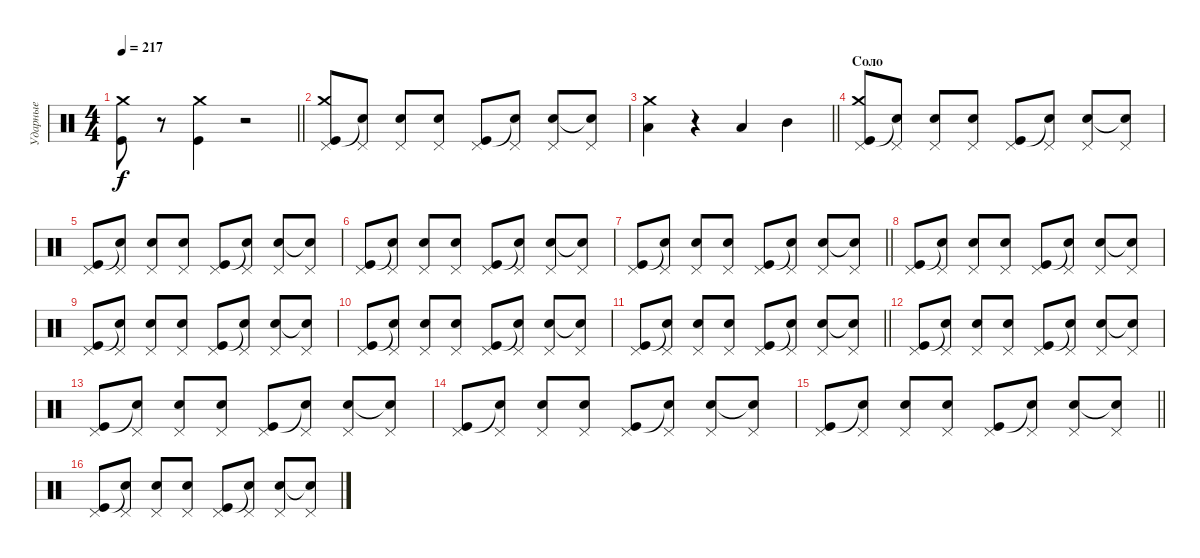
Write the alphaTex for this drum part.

\track ("Ударные" "Ударные") {instrument percussion}
\staff {score}
\articulation defaults
\ts (4 4)
\tempo 217
\clef neutral
\barLineRight lightlight
\ks c
("Kick (hit)" "Crash medium (hit)").8{dy f} r.8 ("Kick (hit)" "Crash medium (hit)").4 r.2 |
("Pedal Hi-Hat (hit)" "Kick (hit)" "Crash medium (hit)").8 ("Pedal Hi-Hat (hit)" "Snare (hit)"{t}).8 ("Pedal Hi-Hat (hit)" "Snare (hit) 2").8 ("Pedal Hi-Hat (hit)" "Snare (hit) 2").8 ("Pedal Hi-Hat (hit)" "Kick (hit)").8 ("Pedal Hi-Hat (hit)" "Snare (hit)"{t}).8 ("Pedal Hi-Hat (hit)" "Snare (hit) 2").8 ("Pedal Hi-Hat (hit)" "Snare (hit)"{t}).8 |
\barLineRight lightlight
("Low Tom (hit)" "Crash medium (hit)").4 r.4 "Low Floor Tom (hit)".4 "Mid Tom (hit)".4 |
\section ("" "Соло")
("Pedal Hi-Hat (hit)" "Kick (hit)" "Crash medium (hit)").8 ("Pedal Hi-Hat (hit)" "Snare (hit)"{t}).8 ("Pedal Hi-Hat (hit)" "Snare (hit) 2").8 ("Pedal Hi-Hat (hit)" "Snare (hit) 2").8 ("Pedal Hi-Hat (hit)" "Kick (hit)").8 ("Pedal Hi-Hat (hit)" "Snare (hit)"{t}).8 ("Pedal Hi-Hat (hit)" "Snare (hit) 2").8 ("Pedal Hi-Hat (hit)" "Snare (hit)"{t}).8 |
("Pedal Hi-Hat (hit)" "Kick (hit)").8 ("Pedal Hi-Hat (hit)" "Snare (hit)"{t}).8 ("Pedal Hi-Hat (hit)" "Snare (hit) 2").8 ("Pedal Hi-Hat (hit)" "Snare (hit) 2").8 ("Pedal Hi-Hat (hit)" "Kick (hit)").8 ("Pedal Hi-Hat (hit)" "Snare (hit)"{t}).8 ("Pedal Hi-Hat (hit)" "Snare (hit) 2").8 ("Pedal Hi-Hat (hit)" "Snare (hit)"{t}).8 |
("Pedal Hi-Hat (hit)" "Kick (hit)").8 ("Pedal Hi-Hat (hit)" "Snare (hit)"{t}).8 ("Pedal Hi-Hat (hit)" "Snare (hit) 2").8 ("Pedal Hi-Hat (hit)" "Snare (hit) 2").8 ("Pedal Hi-Hat (hit)" "Kick (hit)").8 ("Pedal Hi-Hat (hit)" "Snare (hit)"{t}).8 ("Pedal Hi-Hat (hit)" "Snare (hit) 2").8 ("Pedal Hi-Hat (hit)" "Snare (hit)"{t}).8 |
\barLineRight lightlight
("Pedal Hi-Hat (hit)" "Kick (hit)").8 ("Pedal Hi-Hat (hit)" "Snare (hit)"{t}).8 ("Pedal Hi-Hat (hit)" "Snare (hit) 2").8 ("Pedal Hi-Hat (hit)" "Snare (hit) 2").8 ("Pedal Hi-Hat (hit)" "Kick (hit)").8 ("Pedal Hi-Hat (hit)" "Snare (hit)"{t}).8 ("Pedal Hi-Hat (hit)" "Snare (hit) 2").8 ("Pedal Hi-Hat (hit)" "Snare (hit)"{t}).8 |
("Pedal Hi-Hat (hit)" "Kick (hit)").8 ("Pedal Hi-Hat (hit)" "Snare (hit)"{t}).8 ("Pedal Hi-Hat (hit)" "Snare (hit) 2").8 ("Pedal Hi-Hat (hit)" "Snare (hit) 2").8 ("Pedal Hi-Hat (hit)" "Kick (hit)").8 ("Pedal Hi-Hat (hit)" "Snare (hit)"{t}).8 ("Pedal Hi-Hat (hit)" "Snare (hit) 2").8 ("Pedal Hi-Hat (hit)" "Snare (hit)"{t}).8 |
("Pedal Hi-Hat (hit)" "Kick (hit)").8 ("Pedal Hi-Hat (hit)" "Snare (hit)"{t}).8 ("Pedal Hi-Hat (hit)" "Snare (hit) 2").8 ("Pedal Hi-Hat (hit)" "Snare (hit) 2").8 ("Pedal Hi-Hat (hit)" "Kick (hit)").8 ("Pedal Hi-Hat (hit)" "Snare (hit)"{t}).8 ("Pedal Hi-Hat (hit)" "Snare (hit) 2").8 ("Pedal Hi-Hat (hit)" "Snare (hit)"{t}).8 |
("Pedal Hi-Hat (hit)" "Kick (hit)").8 ("Pedal Hi-Hat (hit)" "Snare (hit)"{t}).8 ("Pedal Hi-Hat (hit)" "Snare (hit) 2").8 ("Pedal Hi-Hat (hit)" "Snare (hit) 2").8 ("Pedal Hi-Hat (hit)" "Kick (hit)").8 ("Pedal Hi-Hat (hit)" "Snare (hit)"{t}).8 ("Pedal Hi-Hat (hit)" "Snare (hit) 2").8 ("Pedal Hi-Hat (hit)" "Snare (hit)"{t}).8 |
\barLineRight lightlight
("Pedal Hi-Hat (hit)" "Kick (hit)").8 ("Pedal Hi-Hat (hit)" "Snare (hit)"{t}).8 ("Pedal Hi-Hat (hit)" "Snare (hit) 2").8 ("Pedal Hi-Hat (hit)" "Snare (hit) 2").8 ("Pedal Hi-Hat (hit)" "Kick (hit)").8 ("Pedal Hi-Hat (hit)" "Snare (hit)"{t}).8 ("Pedal Hi-Hat (hit)" "Snare (hit) 2").8 ("Pedal Hi-Hat (hit)" "Snare (hit)"{t}).8 |
("Pedal Hi-Hat (hit)" "Kick (hit)").8 ("Pedal Hi-Hat (hit)" "Snare (hit)"{t}).8 ("Pedal Hi-Hat (hit)" "Snare (hit) 2").8 ("Pedal Hi-Hat (hit)" "Snare (hit) 2").8 ("Pedal Hi-Hat (hit)" "Kick (hit)").8 ("Pedal Hi-Hat (hit)" "Snare (hit)"{t}).8 ("Pedal Hi-Hat (hit)" "Snare (hit) 2").8 ("Pedal Hi-Hat (hit)" "Snare (hit)"{t}).8 |
("Pedal Hi-Hat (hit)" "Kick (hit)").8 ("Pedal Hi-Hat (hit)" "Snare (hit)"{t}).8 ("Pedal Hi-Hat (hit)" "Snare (hit) 2").8 ("Pedal Hi-Hat (hit)" "Snare (hit) 2").8 ("Pedal Hi-Hat (hit)" "Kick (hit)").8 ("Pedal Hi-Hat (hit)" "Snare (hit)"{t}).8 ("Pedal Hi-Hat (hit)" "Snare (hit) 2").8 ("Pedal Hi-Hat (hit)" "Snare (hit)"{t}).8 |
("Pedal Hi-Hat (hit)" "Kick (hit)").8 ("Pedal Hi-Hat (hit)" "Snare (hit)"{t}).8 ("Pedal Hi-Hat (hit)" "Snare (hit) 2").8 ("Pedal Hi-Hat (hit)" "Snare (hit) 2").8 ("Pedal Hi-Hat (hit)" "Kick (hit)").8 ("Pedal Hi-Hat (hit)" "Snare (hit)"{t}).8 ("Pedal Hi-Hat (hit)" "Snare (hit) 2").8 ("Pedal Hi-Hat (hit)" "Snare (hit)"{t}).8 |
\barLineRight lightlight
("Pedal Hi-Hat (hit)" "Kick (hit)").8 ("Pedal Hi-Hat (hit)" "Snare (hit)"{t}).8 ("Pedal Hi-Hat (hit)" "Snare (hit) 2").8 ("Pedal Hi-Hat (hit)" "Snare (hit) 2").8 ("Pedal Hi-Hat (hit)" "Kick (hit)").8 ("Pedal Hi-Hat (hit)" "Snare (hit)"{t}).8 ("Pedal Hi-Hat (hit)" "Snare (hit) 2").8 ("Pedal Hi-Hat (hit)" "Snare (hit)"{t}).8 |
("Pedal Hi-Hat (hit)" "Kick (hit)").8 ("Pedal Hi-Hat (hit)" "Snare (hit)"{t}).8 ("Pedal Hi-Hat (hit)" "Snare (hit) 2").8 ("Pedal Hi-Hat (hit)" "Snare (hit) 2").8 ("Pedal Hi-Hat (hit)" "Kick (hit)").8 ("Pedal Hi-Hat (hit)" "Snare (hit)"{t}).8 ("Pedal Hi-Hat (hit)" "Snare (hit) 2").8 ("Pedal Hi-Hat (hit)" "Snare (hit)"{t}).8
